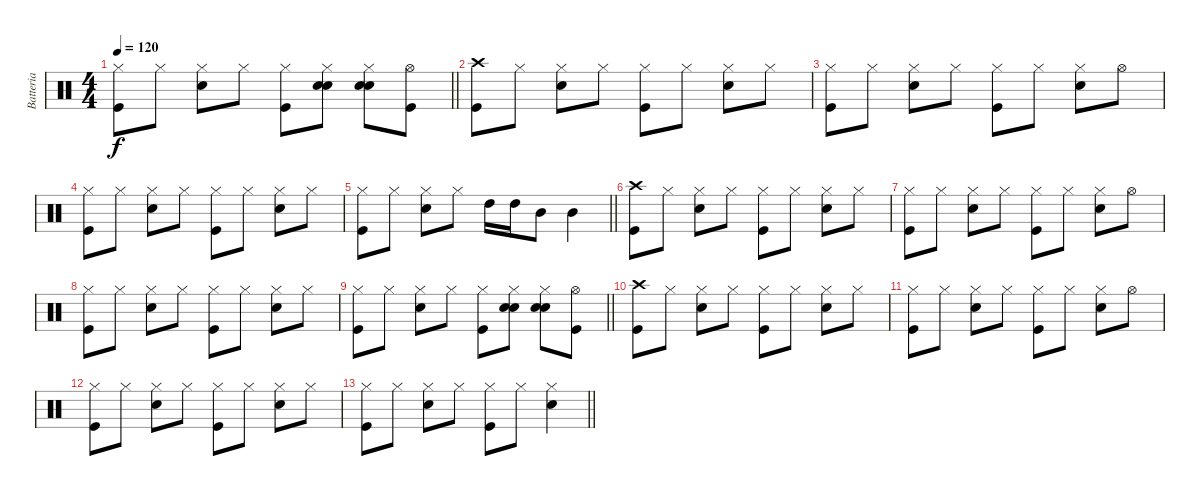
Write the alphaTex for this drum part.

\track ("Batteria" "Batteria") {instrument percussion}
\staff {score}
\articulation defaults
\ts (4 4)
\tempo 120
\clef neutral
\barLineRight lightlight
\ks c
("Kick (hit)" "Hi-Hat (closed)").8{dy f} "Hi-Hat (closed)".8 ("Snare (hit) 2" "Hi-Hat (closed)").8 "Hi-Hat (closed)".8 ("Kick (hit)" "Hi-Hat (closed)").8 ("Hi-Hat (closed)" "Snare (hit) 2" "Hand Clap (hit)").8 ("Snare (hit) 2" "Hi-Hat (closed)" "Hand Clap (hit)").8 ("Hi-Hat (open)" "Kick (hit)").8 |
("Kick (hit)" "Crash high (hit)").8 "Hi-Hat (closed)".8 ("Snare (hit) 2" "Hi-Hat (closed)").8 "Hi-Hat (closed)".8 ("Kick (hit)" "Hi-Hat (closed)").8 "Hi-Hat (closed)".8 ("Snare (hit) 2" "Hi-Hat (closed)").8 "Hi-Hat (closed)".8 |
("Kick (hit)" "Hi-Hat (closed)").8 "Hi-Hat (closed)".8 ("Snare (hit) 2" "Hi-Hat (closed)").8 "Hi-Hat (closed)".8 ("Kick (hit)" "Hi-Hat (closed)").8 "Hi-Hat (closed)".8 ("Snare (hit) 2" "Hi-Hat (closed)").8 "Hi-Hat (open)".8 |
("Kick (hit)" "Hi-Hat (closed)").8 "Hi-Hat (closed)".8 ("Snare (hit) 2" "Hi-Hat (closed)").8 "Hi-Hat (closed)".8 ("Kick (hit)" "Hi-Hat (closed)").8 "Hi-Hat (closed)".8 ("Snare (hit) 2" "Hi-Hat (closed)").8 "Hi-Hat (closed)".8 |
\barLineRight lightlight
("Kick (hit)" "Hi-Hat (closed)").8 "Hi-Hat (closed)".8 ("Snare (hit) 2" "Hi-Hat (closed)").8 "Hi-Hat (closed)".8 "High Tom (hit)".16 "High Tom (hit)".16 "Mid Tom (hit)".8 "Mid Tom (hit)".4 |
("Kick (hit)" "Crash high (hit)").8 "Hi-Hat (closed)".8 ("Snare (hit) 2" "Hi-Hat (closed)").8 "Hi-Hat (closed)".8 ("Kick (hit)" "Hi-Hat (closed)").8 "Hi-Hat (closed)".8 ("Snare (hit) 2" "Hi-Hat (closed)").8 "Hi-Hat (closed)".8 |
("Kick (hit)" "Hi-Hat (closed)").8 "Hi-Hat (closed)".8 ("Snare (hit) 2" "Hi-Hat (closed)").8 "Hi-Hat (closed)".8 ("Kick (hit)" "Hi-Hat (closed)").8 "Hi-Hat (closed)".8 ("Snare (hit) 2" "Hi-Hat (closed)").8 "Hi-Hat (open)".8 |
("Kick (hit)" "Hi-Hat (closed)").8 "Hi-Hat (closed)".8 ("Snare (hit) 2" "Hi-Hat (closed)").8 "Hi-Hat (closed)".8 ("Kick (hit)" "Hi-Hat (closed)").8 "Hi-Hat (closed)".8 ("Snare (hit) 2" "Hi-Hat (closed)").8 "Hi-Hat (closed)".8 |
\barLineRight lightlight
("Kick (hit)" "Hi-Hat (closed)").8 "Hi-Hat (closed)".8 ("Snare (hit) 2" "Hi-Hat (closed)").8 "Hi-Hat (closed)".8 ("Kick (hit)" "Hi-Hat (closed)").8 ("Hi-Hat (closed)" "Snare (hit) 2" "Hand Clap (hit)").8 ("Snare (hit) 2" "Hi-Hat (closed)" "Hand Clap (hit)").8 ("Hi-Hat (open)" "Kick (hit)").8 |
("Kick (hit)" "Crash high (hit)").8 "Hi-Hat (closed)".8 ("Snare (hit) 2" "Hi-Hat (closed)").8 "Hi-Hat (closed)".8 ("Kick (hit)" "Hi-Hat (closed)").8 "Hi-Hat (closed)".8 ("Snare (hit) 2" "Hi-Hat (closed)").8 "Hi-Hat (closed)".8 |
("Kick (hit)" "Hi-Hat (closed)").8 "Hi-Hat (closed)".8 ("Snare (hit) 2" "Hi-Hat (closed)").8 "Hi-Hat (closed)".8 ("Kick (hit)" "Hi-Hat (closed)").8 "Hi-Hat (closed)".8 ("Snare (hit) 2" "Hi-Hat (closed)").8 "Hi-Hat (open)".8 |
("Kick (hit)" "Hi-Hat (closed)").8 "Hi-Hat (closed)".8 ("Snare (hit) 2" "Hi-Hat (closed)").8 "Hi-Hat (closed)".8 ("Kick (hit)" "Hi-Hat (closed)").8 "Hi-Hat (closed)".8 ("Snare (hit) 2" "Hi-Hat (closed)").8 "Hi-Hat (closed)".8 |
\barLineRight lightlight
("Kick (hit)" "Hi-Hat (closed)").8 "Hi-Hat (closed)".8 ("Snare (hit) 2" "Hi-Hat (closed)").8 "Hi-Hat (closed)".8 ("Kick (hit)" "Hi-Hat (closed)").8 "Hi-Hat (closed)".8 ("Snare (hit) 2" "Hi-Hat (closed)").4
